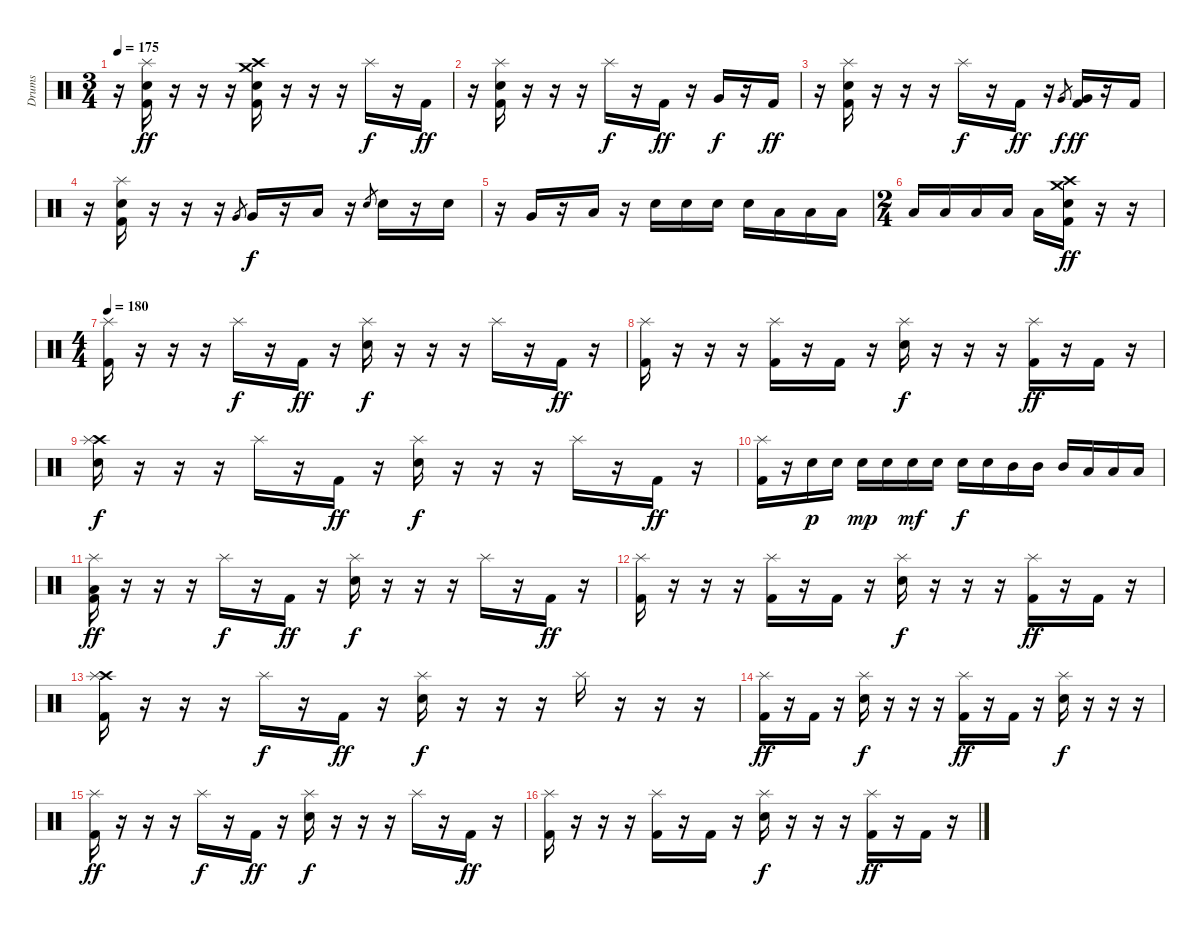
\track ("Drums" "Drums") {instrument percussion}
\staff {score}
\articulation defaults
\ts (3 4)
\tempo 175
\clef neutral
\ks c
r.16{dy ff} ("Splash (hit)" "Snare (hit) 2" "Kick (hit) 2").16 r.16 r.16 r.16 ("Crash medium (hit)" "Crash high (hit)" "Snare (hit) 2" "Kick (hit) 2").16 r.16 r.16 r.16 "Splash (hit)".16{dy f} r.16 "Kick (hit) 2".16{dy ff} |
r.16 ("Splash (hit)" "Snare (hit) 2" "Kick (hit) 2").16 r.16 r.16 r.16 "Splash (hit)".16{dy f} r.16 "Kick (hit) 2".16{dy ff} r.16 "Very Low Tom (hit)".16{dy f} r.16 "Kick (hit) 2".16{dy ff} |
r.16 ("Splash (hit)" "Snare (hit) 2" "Kick (hit) 2").16 r.16 r.16 r.16 "Splash (hit)".16{dy f} r.16 "Kick (hit) 2".16{dy ff} r.16 "Very Low Tom (hit)".8{gr dy f} ("Very Low Tom (hit)" "Kick (hit) 2").16{dy ff} r.16 "Kick (hit) 2".16 |
r.16 ("Splash (hit)" "Snare (hit) 2" "Kick (hit) 2").16 r.16 r.16 r.16 "Very Low Tom (hit)".8{gr} "Very Low Tom (hit)".16{dy f} r.16 "Low Floor Tom (hit)".16 r.16 "Snare (hit) 2".8{gr} "Snare (hit) 2".16 r.16 "Snare (hit) 2".16 |
r.16 "Very Low Tom (hit)".16 r.16 "Low Floor Tom (hit)".16 r.16 "Snare (hit) 2".16 "Snare (hit) 2".16 "Snare (hit) 2".16 "Snare (hit) 2".16 "Low Tom (hit)".16 "Low Tom (hit)".16 "Low Tom (hit)".16 |
\ts (2 4)
"Low Tom (hit)".16 "Low Floor Tom (hit)".16 "Low Floor Tom (hit)".16 "Low Floor Tom (hit)".16 "Low Floor Tom (hit)".16 ("Crash medium (hit)" "Crash high (hit)" "Snare (hit) 2" "Kick (hit) 2").16{dy ff} r.16 r.16 |
\ts (4 4)
\tempo 180
("Splash (hit)" "Kick (hit) 2").16 r.16 r.16 r.16 "Splash (hit)".16{dy f} r.16 "Kick (hit) 2".16{dy ff} r.16 ("Splash (hit)" "Snare (hit) 2").16{dy f} r.16 r.16 r.16 "Splash (hit)".16 r.16 "Kick (hit) 2".16{dy ff} r.16 |
("Splash (hit)" "Kick (hit) 2").16 r.16 r.16 r.16 ("Splash (hit)" "Kick (hit) 2").16 r.16 "Kick (hit) 2".16 r.16 ("Splash (hit)" "Snare (hit) 2").16{dy f} r.16 r.16 r.16 ("Splash (hit)" "Kick (hit) 2").16{dy ff} r.16 "Kick (hit) 2".16 r.16 |
("Crash high (hit)" "Splash (hit)" "Snare (hit) 2").16{dy f} r.16 r.16 r.16 "Splash (hit)".16 r.16 "Kick (hit) 2".16{dy ff} r.16 ("Splash (hit)" "Snare (hit) 2").16{dy f} r.16 r.16 r.16 "Splash (hit)".16 r.16 "Kick (hit) 2".16{dy ff} r.16 |
("Splash (hit)" "Kick (hit) 2").16 r.16 "Snare (hit) 2".16{dy p} "Snare (hit) 2".16 "Snare (hit) 2".16{dy mp} "Snare (hit) 2".16 "Snare (hit) 2".16{dy mf} "Snare (hit) 2".16 "Snare (hit) 2".16{dy f} "Snare (hit) 2".16 "Mid Tom (hit)".16 "Mid Tom (hit)".16 "Mid Tom (hit)".16 "Low Tom (hit)".16 "Low Tom (hit)".16 "Low Tom (hit)".16 |
("Splash (hit)" "Low Floor Tom (hit)" "Kick (hit) 2").16{dy ff} r.16 r.16 r.16 "Splash (hit)".16{dy f} r.16 "Kick (hit) 2".16{dy ff} r.16 ("Splash (hit)" "Snare (hit) 2").16{dy f} r.16 r.16 r.16 "Splash (hit)".16 r.16 "Kick (hit) 2".16{dy ff} r.16 |
("Splash (hit)" "Kick (hit) 2").16 r.16 r.16 r.16 ("Splash (hit)" "Kick (hit) 2").16 r.16 "Kick (hit) 2".16 r.16 ("Splash (hit)" "Snare (hit) 2").16{dy f} r.16 r.16 r.16 ("Splash (hit)" "Kick (hit) 2").16{dy ff} r.16 "Kick (hit) 2".16 r.16 |
("Crash high (hit)" "Splash (hit)" "Kick (hit) 2").16 r.16 r.16 r.16 "Splash (hit)".16{dy f} r.16 "Kick (hit) 2".16{dy ff} r.16 ("Splash (hit)" "Snare (hit) 2").16{dy f} r.16 r.16 r.16 "Splash (hit)".16 r.16 r.16 r.16 |
("Splash (hit)" "Kick (hit) 2").16{dy ff} r.16 "Kick (hit) 2".16 r.16 ("Splash (hit)" "Snare (hit) 2").16{dy f} r.16 r.16 r.16 ("Splash (hit)" "Kick (hit) 2").16{dy ff} r.16 "Kick (hit) 2".16 r.16 ("Splash (hit)" "Snare (hit) 2").16{dy f} r.16 r.16 r.16 |
("Splash (hit)" "Kick (hit) 2").16{dy ff} r.16 r.16 r.16 "Splash (hit)".16{dy f} r.16 "Kick (hit) 2".16{dy ff} r.16 ("Splash (hit)" "Snare (hit) 2").16{dy f} r.16 r.16 r.16 "Splash (hit)".16 r.16 "Kick (hit) 2".16{dy ff} r.16 |
("Splash (hit)" "Kick (hit) 2").16 r.16 r.16 r.16 ("Splash (hit)" "Kick (hit) 2").16 r.16 "Kick (hit) 2".16 r.16 ("Splash (hit)" "Snare (hit) 2").16{dy f} r.16 r.16 r.16 ("Splash (hit)" "Kick (hit) 2").16{dy ff} r.16 "Kick (hit) 2".16 r.16
